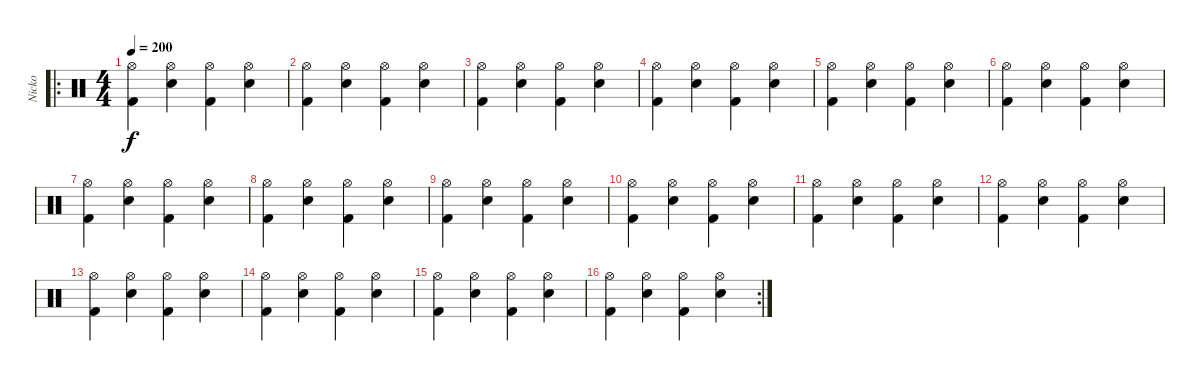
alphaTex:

\track ("Nicko" "Nicko") {instrument percussion}
\staff {score}
\articulation defaults
\ro
\ts (4 4)
\tempo 200
\clef neutral
\ks c
("Hi-Hat (open)" "Kick (hit) 2").4{dy f} ("Hi-Hat (open)" "Electric Snare (hit)").4 ("Hi-Hat (open)" "Kick (hit) 2").4 ("Hi-Hat (open)" "Electric Snare (hit)").4 |
("Hi-Hat (open)" "Kick (hit) 2").4 ("Hi-Hat (open)" "Electric Snare (hit)").4 ("Hi-Hat (open)" "Kick (hit) 2").4 ("Hi-Hat (open)" "Electric Snare (hit)").4 |
("Hi-Hat (open)" "Kick (hit) 2").4 ("Hi-Hat (open)" "Electric Snare (hit)").4 ("Hi-Hat (open)" "Kick (hit) 2").4 ("Hi-Hat (open)" "Electric Snare (hit)").4 |
("Hi-Hat (open)" "Kick (hit) 2").4 ("Hi-Hat (open)" "Electric Snare (hit)").4 ("Hi-Hat (open)" "Kick (hit) 2").4 ("Hi-Hat (open)" "Electric Snare (hit)").4 |
("Hi-Hat (open)" "Kick (hit) 2").4 ("Hi-Hat (open)" "Electric Snare (hit)").4 ("Hi-Hat (open)" "Kick (hit) 2").4 ("Hi-Hat (open)" "Electric Snare (hit)").4 |
("Hi-Hat (open)" "Kick (hit) 2").4 ("Hi-Hat (open)" "Electric Snare (hit)").4 ("Hi-Hat (open)" "Kick (hit) 2").4 ("Hi-Hat (open)" "Electric Snare (hit)").4 |
("Hi-Hat (open)" "Kick (hit) 2").4 ("Hi-Hat (open)" "Electric Snare (hit)").4 ("Hi-Hat (open)" "Kick (hit) 2").4 ("Hi-Hat (open)" "Electric Snare (hit)").4 |
("Hi-Hat (open)" "Kick (hit) 2").4 ("Hi-Hat (open)" "Electric Snare (hit)").4 ("Hi-Hat (open)" "Kick (hit) 2").4 ("Hi-Hat (open)" "Electric Snare (hit)").4 |
("Hi-Hat (open)" "Kick (hit) 2").4 ("Hi-Hat (open)" "Electric Snare (hit)").4 ("Hi-Hat (open)" "Kick (hit) 2").4 ("Hi-Hat (open)" "Electric Snare (hit)").4 |
("Hi-Hat (open)" "Kick (hit) 2").4 ("Hi-Hat (open)" "Electric Snare (hit)").4 ("Hi-Hat (open)" "Kick (hit) 2").4 ("Hi-Hat (open)" "Electric Snare (hit)").4 |
("Hi-Hat (open)" "Kick (hit) 2").4 ("Hi-Hat (open)" "Electric Snare (hit)").4 ("Hi-Hat (open)" "Kick (hit) 2").4 ("Hi-Hat (open)" "Electric Snare (hit)").4 |
("Hi-Hat (open)" "Kick (hit) 2").4 ("Hi-Hat (open)" "Electric Snare (hit)").4 ("Hi-Hat (open)" "Kick (hit) 2").4 ("Hi-Hat (open)" "Electric Snare (hit)").4 |
("Hi-Hat (open)" "Kick (hit) 2").4 ("Hi-Hat (open)" "Electric Snare (hit)").4 ("Hi-Hat (open)" "Kick (hit) 2").4 ("Hi-Hat (open)" "Electric Snare (hit)").4 |
("Hi-Hat (open)" "Kick (hit) 2").4 ("Hi-Hat (open)" "Electric Snare (hit)").4 ("Hi-Hat (open)" "Kick (hit) 2").4 ("Hi-Hat (open)" "Electric Snare (hit)").4 |
("Hi-Hat (open)" "Kick (hit) 2").4 ("Hi-Hat (open)" "Electric Snare (hit)").4 ("Hi-Hat (open)" "Kick (hit) 2").4 ("Hi-Hat (open)" "Electric Snare (hit)").4 |
\rc 2
("Hi-Hat (open)" "Kick (hit) 2").4 ("Hi-Hat (open)" "Electric Snare (hit)").4 ("Hi-Hat (open)" "Kick (hit) 2").4 ("Hi-Hat (open)" "Electric Snare (hit)").4
